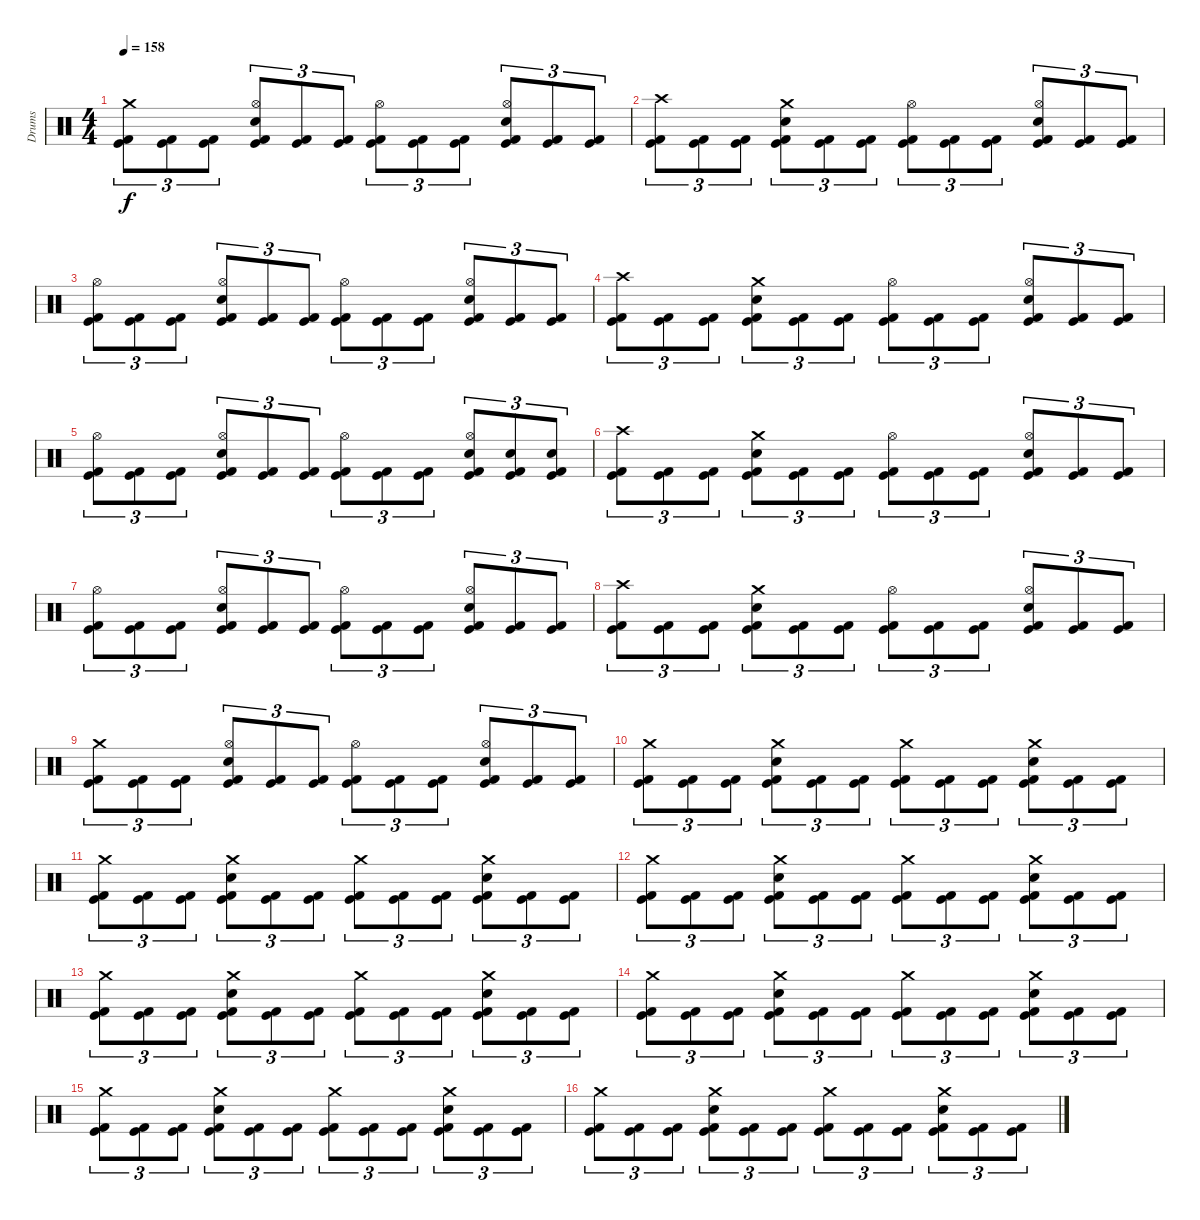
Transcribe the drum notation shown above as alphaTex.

\track ("Drums" "Drums") {instrument percussion}
\staff {score}
\articulation defaults
\ts (4 4)
\tempo 158
\clef neutral
\ks c
("Crash medium (hit)" "Kick (hit)" "Kick (hit) 2").8{tu (3 2) dy f} ("Kick (hit)" "Kick (hit) 2").8{tu (3 2)} ("Kick (hit)" "Kick (hit) 2").8{tu (3 2)} ("Hi-Hat (open)" "Snare (hit) 2" "Kick (hit)" "Kick (hit) 2").8{tu (3 2)} ("Kick (hit)" "Kick (hit) 2").8{tu (3 2)} ("Kick (hit)" "Kick (hit) 2").8{tu (3 2)} ("Hi-Hat (open)" "Kick (hit)" "Kick (hit) 2").8{tu (3 2)} ("Kick (hit)" "Kick (hit) 2").8{tu (3 2)} ("Kick (hit)" "Kick (hit) 2").8{tu (3 2)} ("Hi-Hat (open)" "Snare (hit) 2" "Kick (hit)" "Kick (hit) 2").8{tu (3 2)} ("Kick (hit)" "Kick (hit) 2").8{tu (3 2)} ("Kick (hit)" "Kick (hit) 2").8{tu (3 2)} |
("Crash high (hit)" "Kick (hit)" "Kick (hit) 2").8{tu (3 2)} ("Kick (hit)" "Kick (hit) 2").8{tu (3 2)} ("Kick (hit)" "Kick (hit) 2").8{tu (3 2)} ("Crash medium (hit)" "Snare (hit) 2" "Kick (hit)" "Kick (hit) 2").8{tu (3 2)} ("Kick (hit)" "Kick (hit) 2").8{tu (3 2)} ("Kick (hit)" "Kick (hit) 2").8{tu (3 2)} ("Hi-Hat (open)" "Kick (hit)" "Kick (hit) 2").8{tu (3 2)} ("Kick (hit)" "Kick (hit) 2").8{tu (3 2)} ("Kick (hit)" "Kick (hit) 2").8{tu (3 2)} ("Hi-Hat (open)" "Snare (hit) 2" "Kick (hit)" "Kick (hit) 2").8{tu (3 2)} ("Kick (hit)" "Kick (hit) 2").8{tu (3 2)} ("Kick (hit)" "Kick (hit) 2").8{tu (3 2)} |
("Hi-Hat (open)" "Kick (hit)" "Kick (hit) 2").8{tu (3 2)} ("Kick (hit)" "Kick (hit) 2").8{tu (3 2)} ("Kick (hit)" "Kick (hit) 2").8{tu (3 2)} ("Hi-Hat (open)" "Snare (hit) 2" "Kick (hit)" "Kick (hit) 2").8{tu (3 2)} ("Kick (hit)" "Kick (hit) 2").8{tu (3 2)} ("Kick (hit)" "Kick (hit) 2").8{tu (3 2)} ("Hi-Hat (open)" "Kick (hit)" "Kick (hit) 2").8{tu (3 2)} ("Kick (hit)" "Kick (hit) 2").8{tu (3 2)} ("Kick (hit)" "Kick (hit) 2").8{tu (3 2)} ("Hi-Hat (open)" "Snare (hit) 2" "Kick (hit)" "Kick (hit) 2").8{tu (3 2)} ("Kick (hit)" "Kick (hit) 2").8{tu (3 2)} ("Kick (hit)" "Kick (hit) 2").8{tu (3 2)} |
("Crash high (hit)" "Kick (hit)" "Kick (hit) 2").8{tu (3 2)} ("Kick (hit)" "Kick (hit) 2").8{tu (3 2)} ("Kick (hit)" "Kick (hit) 2").8{tu (3 2)} ("Crash medium (hit)" "Snare (hit) 2" "Kick (hit)" "Kick (hit) 2").8{tu (3 2)} ("Kick (hit)" "Kick (hit) 2").8{tu (3 2)} ("Kick (hit)" "Kick (hit) 2").8{tu (3 2)} ("Hi-Hat (open)" "Kick (hit)" "Kick (hit) 2").8{tu (3 2)} ("Kick (hit)" "Kick (hit) 2").8{tu (3 2)} ("Kick (hit)" "Kick (hit) 2").8{tu (3 2)} ("Hi-Hat (open)" "Snare (hit) 2" "Kick (hit)" "Kick (hit) 2").8{tu (3 2)} ("Kick (hit)" "Kick (hit) 2").8{tu (3 2)} ("Kick (hit)" "Kick (hit) 2").8{tu (3 2)} |
("Hi-Hat (open)" "Kick (hit)" "Kick (hit) 2").8{tu (3 2)} ("Kick (hit)" "Kick (hit) 2").8{tu (3 2)} ("Kick (hit)" "Kick (hit) 2").8{tu (3 2)} ("Hi-Hat (open)" "Snare (hit) 2" "Kick (hit)" "Kick (hit) 2").8{tu (3 2)} ("Kick (hit)" "Kick (hit) 2").8{tu (3 2)} ("Kick (hit)" "Kick (hit) 2").8{tu (3 2)} ("Hi-Hat (open)" "Kick (hit)" "Kick (hit) 2").8{tu (3 2)} ("Kick (hit)" "Kick (hit) 2").8{tu (3 2)} ("Kick (hit)" "Kick (hit) 2").8{tu (3 2)} ("Hi-Hat (open)" "Snare (hit) 2" "Kick (hit)" "Kick (hit) 2").8{tu (3 2)} ("Snare (hit) 2" "Kick (hit)" "Kick (hit) 2").8{tu (3 2)} ("Snare (hit) 2" "Kick (hit)" "Kick (hit) 2").8{tu (3 2)} |
("Crash high (hit)" "Kick (hit)" "Kick (hit) 2").8{tu (3 2)} ("Kick (hit)" "Kick (hit) 2").8{tu (3 2)} ("Kick (hit)" "Kick (hit) 2").8{tu (3 2)} ("Crash medium (hit)" "Snare (hit) 2" "Kick (hit)" "Kick (hit) 2").8{tu (3 2)} ("Kick (hit)" "Kick (hit) 2").8{tu (3 2)} ("Kick (hit)" "Kick (hit) 2").8{tu (3 2)} ("Hi-Hat (open)" "Kick (hit)" "Kick (hit) 2").8{tu (3 2)} ("Kick (hit)" "Kick (hit) 2").8{tu (3 2)} ("Kick (hit)" "Kick (hit) 2").8{tu (3 2)} ("Hi-Hat (open)" "Snare (hit) 2" "Kick (hit)" "Kick (hit) 2").8{tu (3 2)} ("Kick (hit)" "Kick (hit) 2").8{tu (3 2)} ("Kick (hit)" "Kick (hit) 2").8{tu (3 2)} |
("Hi-Hat (open)" "Kick (hit)" "Kick (hit) 2").8{tu (3 2)} ("Kick (hit)" "Kick (hit) 2").8{tu (3 2)} ("Kick (hit)" "Kick (hit) 2").8{tu (3 2)} ("Hi-Hat (open)" "Snare (hit) 2" "Kick (hit)" "Kick (hit) 2").8{tu (3 2)} ("Kick (hit)" "Kick (hit) 2").8{tu (3 2)} ("Kick (hit)" "Kick (hit) 2").8{tu (3 2)} ("Hi-Hat (open)" "Kick (hit)" "Kick (hit) 2").8{tu (3 2)} ("Kick (hit)" "Kick (hit) 2").8{tu (3 2)} ("Kick (hit)" "Kick (hit) 2").8{tu (3 2)} ("Hi-Hat (open)" "Snare (hit) 2" "Kick (hit)" "Kick (hit) 2").8{tu (3 2)} ("Kick (hit)" "Kick (hit) 2").8{tu (3 2)} ("Kick (hit)" "Kick (hit) 2").8{tu (3 2)} |
("Crash high (hit)" "Kick (hit)" "Kick (hit) 2").8{tu (3 2)} ("Kick (hit)" "Kick (hit) 2").8{tu (3 2)} ("Kick (hit)" "Kick (hit) 2").8{tu (3 2)} ("Crash medium (hit)" "Snare (hit) 2" "Kick (hit)" "Kick (hit) 2").8{tu (3 2)} ("Kick (hit)" "Kick (hit) 2").8{tu (3 2)} ("Kick (hit)" "Kick (hit) 2").8{tu (3 2)} ("Hi-Hat (open)" "Kick (hit)" "Kick (hit) 2").8{tu (3 2)} ("Kick (hit)" "Kick (hit) 2").8{tu (3 2)} ("Kick (hit)" "Kick (hit) 2").8{tu (3 2)} ("Hi-Hat (open)" "Snare (hit) 2" "Kick (hit)" "Kick (hit) 2").8{tu (3 2)} ("Kick (hit)" "Kick (hit) 2").8{tu (3 2)} ("Kick (hit)" "Kick (hit) 2").8{tu (3 2)} |
("Crash medium (hit)" "Kick (hit)" "Kick (hit) 2").8{tu (3 2)} ("Kick (hit)" "Kick (hit) 2").8{tu (3 2)} ("Kick (hit)" "Kick (hit) 2").8{tu (3 2)} ("Hi-Hat (open)" "Snare (hit) 2" "Kick (hit)" "Kick (hit) 2").8{tu (3 2)} ("Kick (hit)" "Kick (hit) 2").8{tu (3 2)} ("Kick (hit)" "Kick (hit) 2").8{tu (3 2)} ("Hi-Hat (open)" "Kick (hit)" "Kick (hit) 2").8{tu (3 2)} ("Kick (hit)" "Kick (hit) 2").8{tu (3 2)} ("Kick (hit)" "Kick (hit) 2").8{tu (3 2)} ("Hi-Hat (open)" "Snare (hit) 2" "Kick (hit)" "Kick (hit) 2").8{tu (3 2)} ("Kick (hit)" "Kick (hit) 2").8{tu (3 2)} ("Kick (hit)" "Kick (hit) 2").8{tu (3 2)} |
("Crash medium (hit)" "Kick (hit)" "Kick (hit) 2").8{tu (3 2)} ("Kick (hit)" "Kick (hit) 2").8{tu (3 2)} ("Kick (hit)" "Kick (hit) 2").8{tu (3 2)} ("Crash medium (hit)" "Snare (hit) 2" "Kick (hit)" "Kick (hit) 2").8{tu (3 2)} ("Kick (hit)" "Kick (hit) 2").8{tu (3 2)} ("Kick (hit)" "Kick (hit) 2").8{tu (3 2)} ("Crash medium (hit)" "Kick (hit)" "Kick (hit) 2").8{tu (3 2)} ("Kick (hit)" "Kick (hit) 2").8{tu (3 2)} ("Kick (hit)" "Kick (hit) 2").8{tu (3 2)} ("Crash medium (hit)" "Snare (hit) 2" "Kick (hit)" "Kick (hit) 2").8{tu (3 2)} ("Kick (hit)" "Kick (hit) 2").8{tu (3 2)} ("Kick (hit)" "Kick (hit) 2").8{tu (3 2)} |
("Crash medium (hit)" "Kick (hit)" "Kick (hit) 2").8{tu (3 2)} ("Kick (hit)" "Kick (hit) 2").8{tu (3 2)} ("Kick (hit)" "Kick (hit) 2").8{tu (3 2)} ("Crash medium (hit)" "Snare (hit) 2" "Kick (hit)" "Kick (hit) 2").8{tu (3 2)} ("Kick (hit)" "Kick (hit) 2").8{tu (3 2)} ("Kick (hit)" "Kick (hit) 2").8{tu (3 2)} ("Crash medium (hit)" "Kick (hit)" "Kick (hit) 2").8{tu (3 2)} ("Kick (hit)" "Kick (hit) 2").8{tu (3 2)} ("Kick (hit)" "Kick (hit) 2").8{tu (3 2)} ("Crash medium (hit)" "Snare (hit) 2" "Kick (hit)" "Kick (hit) 2").8{tu (3 2)} ("Kick (hit)" "Kick (hit) 2").8{tu (3 2)} ("Kick (hit)" "Kick (hit) 2").8{tu (3 2)} |
("Crash medium (hit)" "Kick (hit)" "Kick (hit) 2").8{tu (3 2)} ("Kick (hit)" "Kick (hit) 2").8{tu (3 2)} ("Kick (hit)" "Kick (hit) 2").8{tu (3 2)} ("Crash medium (hit)" "Snare (hit) 2" "Kick (hit)" "Kick (hit) 2").8{tu (3 2)} ("Kick (hit)" "Kick (hit) 2").8{tu (3 2)} ("Kick (hit)" "Kick (hit) 2").8{tu (3 2)} ("Crash medium (hit)" "Kick (hit)" "Kick (hit) 2").8{tu (3 2)} ("Kick (hit)" "Kick (hit) 2").8{tu (3 2)} ("Kick (hit)" "Kick (hit) 2").8{tu (3 2)} ("Crash medium (hit)" "Snare (hit) 2" "Kick (hit)" "Kick (hit) 2").8{tu (3 2)} ("Kick (hit)" "Kick (hit) 2").8{tu (3 2)} ("Kick (hit)" "Kick (hit) 2").8{tu (3 2)} |
("Crash medium (hit)" "Kick (hit)" "Kick (hit) 2").8{tu (3 2)} ("Kick (hit)" "Kick (hit) 2").8{tu (3 2)} ("Kick (hit)" "Kick (hit) 2").8{tu (3 2)} ("Crash medium (hit)" "Snare (hit) 2" "Kick (hit)" "Kick (hit) 2").8{tu (3 2)} ("Kick (hit)" "Kick (hit) 2").8{tu (3 2)} ("Kick (hit)" "Kick (hit) 2").8{tu (3 2)} ("Crash medium (hit)" "Kick (hit)" "Kick (hit) 2").8{tu (3 2)} ("Kick (hit)" "Kick (hit) 2").8{tu (3 2)} ("Kick (hit)" "Kick (hit) 2").8{tu (3 2)} ("Crash medium (hit)" "Snare (hit) 2" "Kick (hit)" "Kick (hit) 2").8{tu (3 2)} ("Kick (hit)" "Kick (hit) 2").8{tu (3 2)} ("Kick (hit)" "Kick (hit) 2").8{tu (3 2)} |
("Crash medium (hit)" "Kick (hit)" "Kick (hit) 2").8{tu (3 2)} ("Kick (hit)" "Kick (hit) 2").8{tu (3 2)} ("Kick (hit)" "Kick (hit) 2").8{tu (3 2)} ("Crash medium (hit)" "Snare (hit) 2" "Kick (hit)" "Kick (hit) 2").8{tu (3 2)} ("Kick (hit)" "Kick (hit) 2").8{tu (3 2)} ("Kick (hit)" "Kick (hit) 2").8{tu (3 2)} ("Crash medium (hit)" "Kick (hit)" "Kick (hit) 2").8{tu (3 2)} ("Kick (hit)" "Kick (hit) 2").8{tu (3 2)} ("Kick (hit)" "Kick (hit) 2").8{tu (3 2)} ("Crash medium (hit)" "Snare (hit) 2" "Kick (hit)" "Kick (hit) 2").8{tu (3 2)} ("Kick (hit)" "Kick (hit) 2").8{tu (3 2)} ("Kick (hit)" "Kick (hit) 2").8{tu (3 2)} |
("Crash medium (hit)" "Kick (hit)" "Kick (hit) 2").8{tu (3 2)} ("Kick (hit)" "Kick (hit) 2").8{tu (3 2)} ("Kick (hit)" "Kick (hit) 2").8{tu (3 2)} ("Crash medium (hit)" "Snare (hit) 2" "Kick (hit)" "Kick (hit) 2").8{tu (3 2)} ("Kick (hit)" "Kick (hit) 2").8{tu (3 2)} ("Kick (hit)" "Kick (hit) 2").8{tu (3 2)} ("Crash medium (hit)" "Kick (hit)" "Kick (hit) 2").8{tu (3 2)} ("Kick (hit)" "Kick (hit) 2").8{tu (3 2)} ("Kick (hit)" "Kick (hit) 2").8{tu (3 2)} ("Crash medium (hit)" "Snare (hit) 2" "Kick (hit)" "Kick (hit) 2").8{tu (3 2)} ("Kick (hit)" "Kick (hit) 2").8{tu (3 2)} ("Kick (hit)" "Kick (hit) 2").8{tu (3 2)} |
("Crash medium (hit)" "Kick (hit)" "Kick (hit) 2").8{tu (3 2)} ("Kick (hit)" "Kick (hit) 2").8{tu (3 2)} ("Kick (hit)" "Kick (hit) 2").8{tu (3 2)} ("Crash medium (hit)" "Snare (hit) 2" "Kick (hit)" "Kick (hit) 2").8{tu (3 2)} ("Kick (hit)" "Kick (hit) 2").8{tu (3 2)} ("Kick (hit)" "Kick (hit) 2").8{tu (3 2)} ("Crash medium (hit)" "Kick (hit)" "Kick (hit) 2").8{tu (3 2)} ("Kick (hit)" "Kick (hit) 2").8{tu (3 2)} ("Kick (hit)" "Kick (hit) 2").8{tu (3 2)} ("Crash medium (hit)" "Snare (hit) 2" "Kick (hit)" "Kick (hit) 2").8{tu (3 2)} ("Kick (hit)" "Kick (hit) 2").8{tu (3 2)} ("Kick (hit)" "Kick (hit) 2").8{tu (3 2)}
